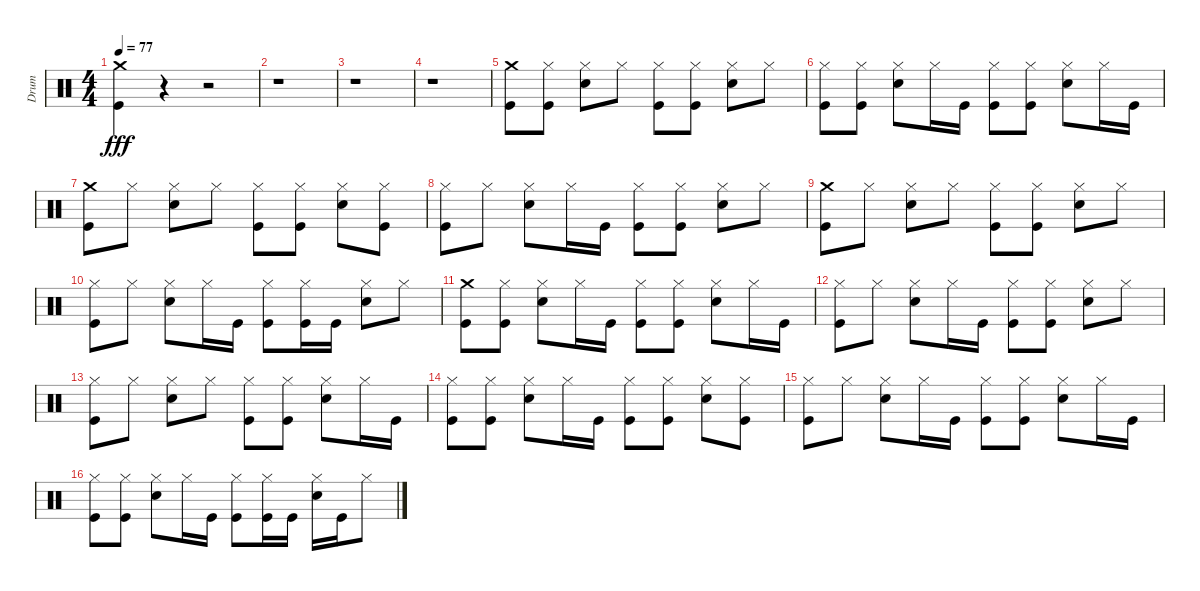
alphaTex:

\track ("Drum" "Drum") {instrument percussion}
\staff {score}
\articulation defaults
\ts (4 4)
\tempo 77
\clef neutral
\ks c
("Crash medium (hit)" "Kick (hit)").4{dy fff} r.4 r.2 |
r.1 |
r.1 |
r.1 |
("Crash medium (hit)" "Kick (hit)").8 ("Hi-Hat (closed)" "Kick (hit)").8 ("Hi-Hat (closed)" "Snare (hit) 2").8 "Hi-Hat (closed)".8 ("Hi-Hat (closed)" "Kick (hit)").8 ("Hi-Hat (closed)" "Kick (hit)").8 ("Hi-Hat (closed)" "Snare (hit) 2").8 "Hi-Hat (closed)".8 |
("Hi-Hat (closed)" "Kick (hit)").8 ("Hi-Hat (closed)" "Kick (hit)").8 ("Hi-Hat (closed)" "Snare (hit) 2").8 "Hi-Hat (closed)".16 "Kick (hit)".16 ("Hi-Hat (closed)" "Kick (hit)").8 ("Hi-Hat (closed)" "Kick (hit)").8 ("Hi-Hat (closed)" "Snare (hit) 2").8 "Hi-Hat (closed)".16 "Kick (hit)".16 |
("Crash medium (hit)" "Kick (hit)").8 "Hi-Hat (closed)".8 ("Hi-Hat (closed)" "Snare (hit) 2").8 "Hi-Hat (closed)".8 ("Hi-Hat (closed)" "Kick (hit)").8 ("Hi-Hat (closed)" "Kick (hit)").8 ("Hi-Hat (closed)" "Snare (hit) 2").8 ("Hi-Hat (closed)" "Kick (hit)").8 |
("Hi-Hat (closed)" "Kick (hit)").8 "Hi-Hat (closed)".8 ("Hi-Hat (closed)" "Snare (hit) 2").8 "Hi-Hat (closed)".16 "Kick (hit)".16 ("Hi-Hat (closed)" "Kick (hit)").8 ("Hi-Hat (closed)" "Kick (hit)").8 ("Hi-Hat (closed)" "Snare (hit) 2").8 "Hi-Hat (closed)".8 |
("Crash medium (hit)" "Kick (hit)").8 "Hi-Hat (closed)".8 ("Hi-Hat (closed)" "Snare (hit) 2").8 "Hi-Hat (closed)".8 ("Hi-Hat (closed)" "Kick (hit)").8 ("Hi-Hat (closed)" "Kick (hit)").8 ("Hi-Hat (closed)" "Snare (hit) 2").8 "Hi-Hat (closed)".8 |
("Hi-Hat (closed)" "Kick (hit)").8 "Hi-Hat (closed)".8 ("Hi-Hat (closed)" "Snare (hit) 2").8 "Hi-Hat (closed)".16 "Kick (hit)".16 ("Hi-Hat (closed)" "Kick (hit)").8 ("Hi-Hat (closed)" "Kick (hit)").16 "Kick (hit)".16 ("Hi-Hat (closed)" "Snare (hit) 2").8 "Hi-Hat (closed)".8 |
("Crash medium (hit)" "Kick (hit)").8 ("Hi-Hat (closed)" "Kick (hit)").8 ("Hi-Hat (closed)" "Snare (hit) 2").8 "Hi-Hat (closed)".16 "Kick (hit)".16 ("Hi-Hat (closed)" "Kick (hit)").8 ("Hi-Hat (closed)" "Kick (hit)").8 ("Hi-Hat (closed)" "Snare (hit) 2").8 "Hi-Hat (closed)".16 "Kick (hit)".16 |
("Hi-Hat (closed)" "Kick (hit)").8 "Hi-Hat (closed)".8 ("Hi-Hat (closed)" "Snare (hit) 2").8 "Hi-Hat (closed)".16 "Kick (hit)".16 ("Hi-Hat (closed)" "Kick (hit)").8 ("Hi-Hat (closed)" "Kick (hit)").8 ("Hi-Hat (closed)" "Snare (hit) 2").8 "Hi-Hat (closed)".8 |
("Hi-Hat (closed)" "Kick (hit)").8 "Hi-Hat (closed)".8 ("Hi-Hat (closed)" "Snare (hit) 2").8 "Hi-Hat (closed)".8 ("Hi-Hat (closed)" "Kick (hit)").8 ("Hi-Hat (closed)" "Kick (hit)").8 ("Hi-Hat (closed)" "Snare (hit) 2").8 "Hi-Hat (closed)".16 "Kick (hit)".16 |
("Hi-Hat (closed)" "Kick (hit)").8 ("Hi-Hat (closed)" "Kick (hit)").8 ("Hi-Hat (closed)" "Snare (hit) 2").8 "Hi-Hat (closed)".16 "Kick (hit)".16 ("Hi-Hat (closed)" "Kick (hit)").8 ("Hi-Hat (closed)" "Kick (hit)").8 ("Hi-Hat (closed)" "Snare (hit) 2").8 ("Hi-Hat (closed)" "Kick (hit)").8 |
("Hi-Hat (closed)" "Kick (hit)").8 "Hi-Hat (closed)".8 ("Hi-Hat (closed)" "Snare (hit) 2").8 "Hi-Hat (closed)".16 "Kick (hit)".16 ("Hi-Hat (closed)" "Kick (hit)").8 ("Hi-Hat (closed)" "Kick (hit)").8 ("Hi-Hat (closed)" "Snare (hit) 2").8 "Hi-Hat (closed)".16 "Kick (hit)".16 |
("Hi-Hat (closed)" "Kick (hit)").8 ("Hi-Hat (closed)" "Kick (hit)").8 ("Hi-Hat (closed)" "Snare (hit) 2").8 "Hi-Hat (closed)".16 "Kick (hit)".16 ("Hi-Hat (closed)" "Kick (hit)").8 ("Hi-Hat (closed)" "Kick (hit)").16 "Kick (hit)".16 ("Hi-Hat (closed)" "Snare (hit) 2").16 "Kick (hit)".16 "Hi-Hat (closed)".8
